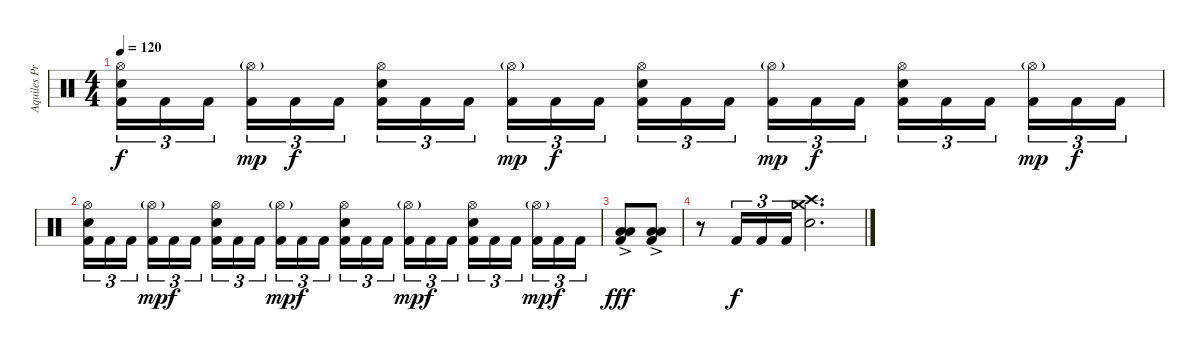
\track ("Aquiles Priester" "Aquiles Pr") {instrument percussion}
\staff {score}
\articulation defaults
\ts (4 4)
\tempo 120
\clef neutral
\ks c
("Hi-Hat (open)" "Electric Snare (hit)" "Kick (hit) 2").16{tu (3 2) dy f} "Kick (hit) 2".16{tu (3 2)} "Kick (hit) 2".16{tu (3 2)} ("Hi-Hat (open)"{g} "Kick (hit) 2").16{tu (3 2) dy mp} "Kick (hit) 2".16{tu (3 2) dy f} "Kick (hit) 2".16{tu (3 2)} ("Hi-Hat (open)" "Electric Snare (hit)" "Kick (hit) 2").16{tu (3 2)} "Kick (hit) 2".16{tu (3 2)} "Kick (hit) 2".16{tu (3 2)} ("Hi-Hat (open)"{g} "Kick (hit) 2").16{tu (3 2) dy mp} "Kick (hit) 2".16{tu (3 2) dy f} "Kick (hit) 2".16{tu (3 2)} ("Hi-Hat (open)" "Electric Snare (hit)" "Kick (hit) 2").16{tu (3 2)} "Kick (hit) 2".16{tu (3 2)} "Kick (hit) 2".16{tu (3 2)} ("Hi-Hat (open)"{g} "Kick (hit) 2").16{tu (3 2) dy mp} "Kick (hit) 2".16{tu (3 2) dy f} "Kick (hit) 2".16{tu (3 2)} ("Hi-Hat (open)" "Electric Snare (hit)" "Kick (hit) 2").16{tu (3 2)} "Kick (hit) 2".16{tu (3 2)} "Kick (hit) 2".16{tu (3 2)} ("Hi-Hat (open)"{g} "Kick (hit) 2").16{tu (3 2) dy mp} "Kick (hit) 2".16{tu (3 2) dy f} "Kick (hit) 2".16{tu (3 2)} |
("Hi-Hat (open)" "Electric Snare (hit)" "Kick (hit) 2").16{tu (3 2)} "Kick (hit) 2".16{tu (3 2)} "Kick (hit) 2".16{tu (3 2)} ("Hi-Hat (open)"{g} "Kick (hit) 2").16{tu (3 2) dy mp} "Kick (hit) 2".16{tu (3 2) dy f} "Kick (hit) 2".16{tu (3 2)} ("Hi-Hat (open)" "Electric Snare (hit)" "Kick (hit) 2").16{tu (3 2)} "Kick (hit) 2".16{tu (3 2)} "Kick (hit) 2".16{tu (3 2)} ("Hi-Hat (open)"{g} "Kick (hit) 2").16{tu (3 2) dy mp} "Kick (hit) 2".16{tu (3 2) dy f} "Kick (hit) 2".16{tu (3 2)} ("Hi-Hat (open)" "Electric Snare (hit)" "Kick (hit) 2").16{tu (3 2)} "Kick (hit) 2".16{tu (3 2)} "Kick (hit) 2".16{tu (3 2)} ("Hi-Hat (open)"{g} "Kick (hit) 2").16{tu (3 2) dy mp} "Kick (hit) 2".16{tu (3 2) dy f} "Kick (hit) 2".16{tu (3 2)} ("Hi-Hat (open)" "Electric Snare (hit)" "Kick (hit) 2").16{tu (3 2)} "Kick (hit) 2".16{tu (3 2)} "Kick (hit) 2".16{tu (3 2)} ("Hi-Hat (open)"{g} "Kick (hit) 2").16{tu (3 2) dy mp} "Kick (hit) 2".16{tu (3 2) dy f} "Kick (hit) 2".16{tu (3 2)} |
("Low Tom (hit)"{ac} "Low Floor Tom (hit)"{ac} "Kick (hit) 2").8{dy fff} ("Low Tom (hit)"{ac} "Low Floor Tom (hit)"{ac} "Kick (hit) 2").8 |
r.8 "Kick (hit) 2".16{tu (3 2) dy f} "Kick (hit) 2".16{tu (3 2)} "Kick (hit) 2".16{tu (3 2)} ("Crash high (hit)" "Crash medium (hit)" "Electric Snare (hit)").2{d}
